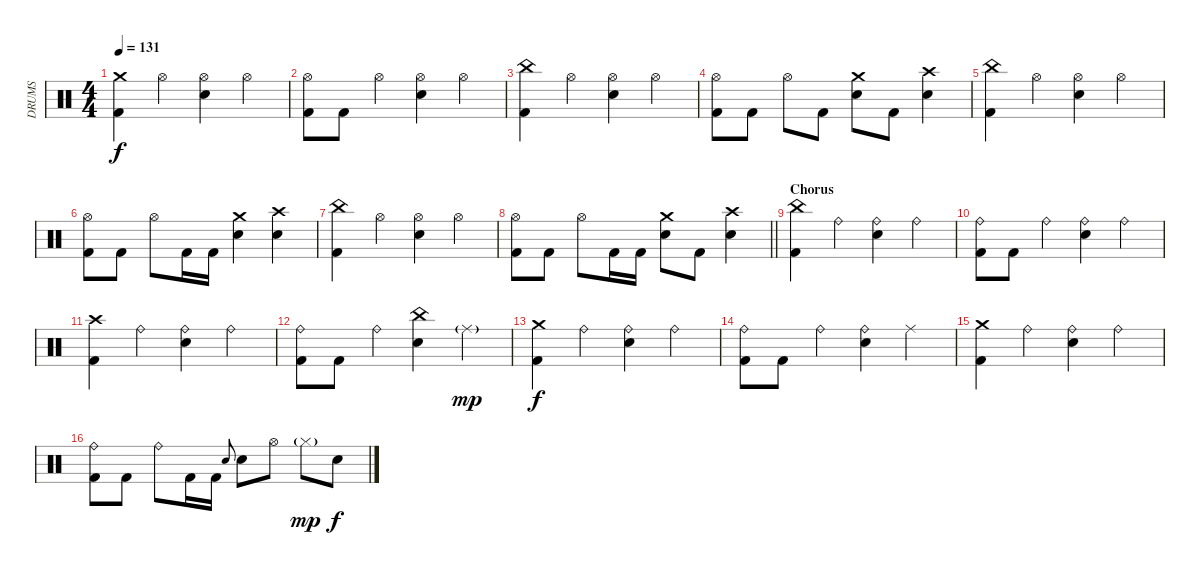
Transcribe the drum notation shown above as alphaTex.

\track ("DRUMS" "DRUMS") {instrument percussion}
\staff {score}
\articulation defaults
\ts (4 4)
\tempo 131
\clef neutral
\ks c
("Crash medium (hit)" "Kick (hit) 2").4{dy f} "Hi-Hat (open)".4 ("Hi-Hat (open)" "Snare (hit) 2").4 "Hi-Hat (open)".4 |
("Hi-Hat (open)" "Kick (hit) 2").8 "Kick (hit) 2".8 "Hi-Hat (open)".4 ("Hi-Hat (open)" "Snare (hit) 2").4 "Hi-Hat (open)".4 |
("China (hit)" "Kick (hit) 2").4 "Hi-Hat (open)".4 ("Hi-Hat (open)" "Snare (hit) 2").4 "Hi-Hat (open)".4 |
("Hi-Hat (open)" "Kick (hit) 2").8 "Kick (hit) 2".8 "Hi-Hat (open)".8 "Kick (hit) 2".8 ("Crash medium (hit)" "Snare (hit) 2").8 "Kick (hit) 2".8 ("Crash high (hit)" "Snare (hit) 2").4 |
("China (hit)" "Kick (hit) 2").4 "Hi-Hat (open)".4 ("Hi-Hat (open)" "Snare (hit) 2").4 "Hi-Hat (open)".4 |
("Hi-Hat (open)" "Kick (hit) 2").8 "Kick (hit) 2".8 "Hi-Hat (open)".8 "Kick (hit) 2".16 "Kick (hit) 2".16 ("Crash medium (hit)" "Snare (hit) 2").4 ("Crash high (hit)" "Snare (hit) 2").4 |
("China (hit)" "Kick (hit) 2").4 "Hi-Hat (open)".4 ("Hi-Hat (open)" "Snare (hit) 2").4 "Hi-Hat (open)".4 |
\barLineRight lightlight
("Hi-Hat (open)" "Kick (hit) 2").8 "Kick (hit) 2".8 "Hi-Hat (open)".8 "Kick (hit) 2".16 "Kick (hit) 2".16 ("Crash medium (hit)" "Snare (hit) 2").8 "Kick (hit) 2".8 ("Crash high (hit)" "Snare (hit) 2").4 |
\section ("" "Chorus")
("China (hit)" "Kick (hit) 2").4 "Ride (bell)".4 ("Ride (bell)" "Snare (hit) 2").4 "Ride (bell)".4 |
("Ride (bell)" "Kick (hit) 2").8 "Kick (hit) 2".8 "Ride (bell)".4 ("Ride (bell)" "Snare (hit) 2").4 "Ride (bell)".4 |
("Crash high (hit)" "Kick (hit) 2").4 "Ride (bell)".4 ("Ride (bell)" "Snare (hit) 2").4 "Ride (bell)".4 |
("Ride (bell)" "Kick (hit) 2").8 "Kick (hit) 2".8 "Ride (bell)".4 ("China (hit)" "Snare (hit) 2").4 "Ride (middle)"{g}.4{dy mp} |
("Crash medium (hit)" "Kick (hit) 2").4{dy f} "Ride (bell)".4 ("Ride (bell)" "Snare (hit) 2").4 "Ride (bell)".4 |
("Ride (bell)" "Kick (hit) 2").8 "Kick (hit) 2".8 "Ride (bell)".4 ("Ride (bell)" "Snare (hit) 2").4 "Ride (middle)".4 |
("Crash medium (hit)" "Kick (hit) 2").4 "Ride (bell)".4 ("Ride (bell)" "Snare (hit) 2").4 "Ride (bell)".4 |
("Ride (bell)" "Kick (hit) 2").8 "Kick (hit) 2".8 "Ride (bell)".8 "Kick (hit) 2".16 "Kick (hit) 2".16 "Snare (hit) 2".8{gr onbeat} "Snare (hit) 2".8 "Hi-Hat (open)".8 "Hi-Hat (closed)"{g}.8{dy mp} "Snare (hit) 2".8{dy f}
